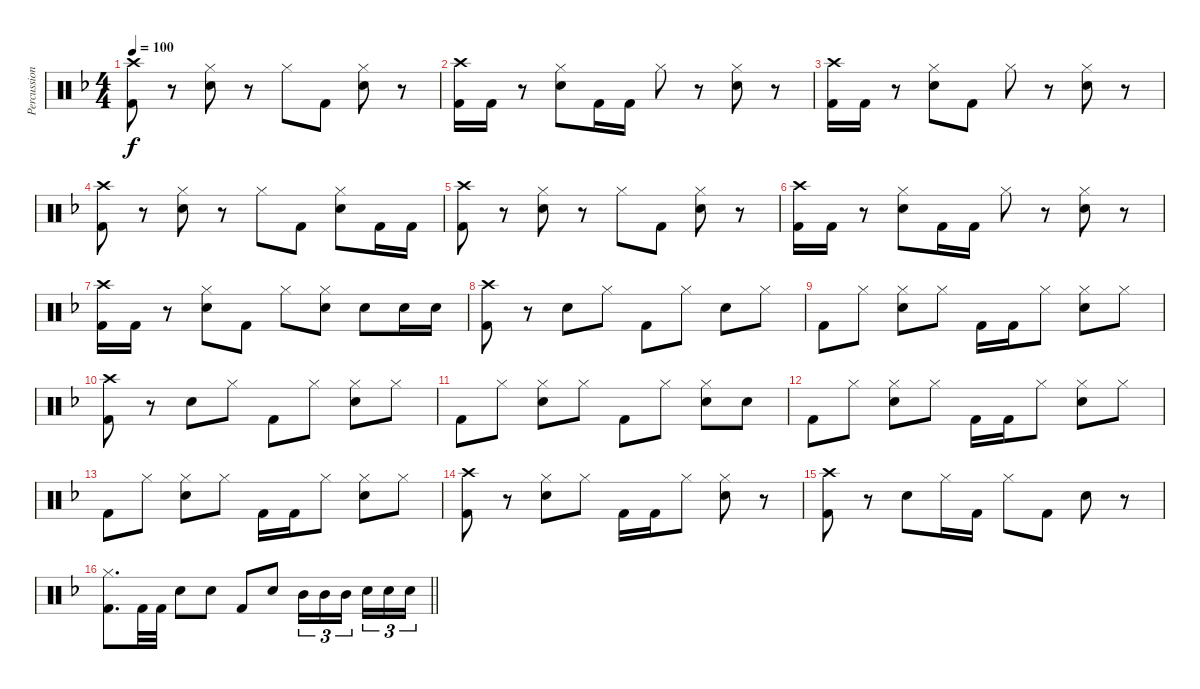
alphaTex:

\track ("Percussion" "Percussion") {instrument percussion}
\staff {score}
\articulation defaults
\ts (4 4)
\tempo 100
\clef neutral
\ks dminor
("Crash high (hit)" "Kick (hit) 2").8{dy f} r.8 ("Hi-Hat (closed)" "Snare (hit) 2").8 r.8 "Hi-Hat (closed)".8 "Kick (hit) 2".8 ("Hi-Hat (closed)" "Snare (hit) 2").8 r.8 |
("Crash high (hit)" "Kick (hit) 2").16 "Kick (hit) 2".16 r.8 ("Hi-Hat (closed)" "Snare (hit) 2").8 "Kick (hit) 2".16 "Kick (hit) 2".16 "Hi-Hat (closed)".8 r.8 ("Hi-Hat (closed)" "Snare (hit) 2").8 r.8 |
("Crash high (hit)" "Kick (hit) 2").16 "Kick (hit) 2".16 r.8 ("Hi-Hat (closed)" "Snare (hit) 2").8 "Kick (hit) 2".8 "Hi-Hat (closed)".8 r.8 ("Hi-Hat (closed)" "Snare (hit) 2").8 r.8 |
("Crash high (hit)" "Kick (hit) 2").8 r.8 ("Hi-Hat (closed)" "Snare (hit) 2").8 r.8 "Hi-Hat (closed)".8 "Kick (hit) 2".8 ("Hi-Hat (closed)" "Snare (hit) 2").8 "Kick (hit) 2".16 "Kick (hit) 2".16 |
("Crash high (hit)" "Kick (hit) 2").8 r.8 ("Hi-Hat (closed)" "Snare (hit) 2").8 r.8 "Hi-Hat (closed)".8 "Kick (hit) 2".8 ("Hi-Hat (closed)" "Snare (hit) 2").8 r.8 |
("Crash high (hit)" "Kick (hit) 2").16 "Kick (hit) 2".16 r.8 ("Hi-Hat (closed)" "Snare (hit) 2").8 "Kick (hit) 2".16 "Kick (hit) 2".16 "Hi-Hat (closed)".8 r.8 ("Hi-Hat (closed)" "Snare (hit) 2").8 r.8 |
("Crash high (hit)" "Kick (hit) 2").16 "Kick (hit) 2".16 r.8 ("Hi-Hat (closed)" "Snare (hit) 2").8 "Kick (hit) 2".8 "Hi-Hat (closed)".8 ("Hi-Hat (closed)" "Snare (hit) 2").8 "Snare (hit) 2".8 "Snare (hit) 2".16 "Snare (hit) 2".16 |
("Crash high (hit)" "Kick (hit) 2").8 r.8 "Snare (hit) 2".8 "Hi-Hat (closed)".8 "Kick (hit) 2".8 "Hi-Hat (closed)".8 "Snare (hit) 2".8 "Hi-Hat (closed)".8 |
"Kick (hit) 2".8 "Hi-Hat (closed)".8 ("Hi-Hat (closed)" "Snare (hit) 2").8 "Hi-Hat (closed)".8 "Kick (hit) 2".16 "Kick (hit) 2".16 "Hi-Hat (closed)".8 ("Hi-Hat (closed)" "Snare (hit) 2").8 "Hi-Hat (closed)".8 |
("Crash high (hit)" "Kick (hit) 2").8 r.8 "Snare (hit) 2".8 "Hi-Hat (closed)".8 "Kick (hit) 2".8 "Hi-Hat (closed)".8 ("Hi-Hat (closed)" "Snare (hit) 2").8 "Hi-Hat (closed)".8 |
"Kick (hit) 2".8 "Hi-Hat (closed)".8 ("Hi-Hat (closed)" "Snare (hit) 2").8 "Hi-Hat (closed)".8 "Kick (hit) 2".8 "Hi-Hat (closed)".8 ("Hi-Hat (closed)" "Snare (hit) 2").8 "Snare (hit) 2".8 |
"Kick (hit) 2".8 "Hi-Hat (closed)".8 ("Hi-Hat (closed)" "Snare (hit) 2").8 "Hi-Hat (closed)".8 "Kick (hit) 2".16 "Kick (hit) 2".16 "Hi-Hat (closed)".8 ("Hi-Hat (closed)" "Snare (hit) 2").8 "Hi-Hat (closed)".8 |
"Kick (hit) 2".8 "Hi-Hat (closed)".8 ("Hi-Hat (closed)" "Snare (hit) 2").8 "Hi-Hat (closed)".8 "Kick (hit) 2".16 "Kick (hit) 2".16 "Hi-Hat (closed)".8 ("Hi-Hat (closed)" "Snare (hit) 2").8 "Hi-Hat (closed)".8 |
("Crash high (hit)" "Kick (hit) 2").8 r.8 ("Hi-Hat (closed)" "Snare (hit) 2").8 "Hi-Hat (closed)".8 "Kick (hit) 2".16 "Kick (hit) 2".16 "Hi-Hat (closed)".8 ("Hi-Hat (closed)" "Snare (hit) 2").8 r.8 |
("Crash high (hit)" "Kick (hit) 2").8 r.8 "Snare (hit) 2".8 "Hi-Hat (closed)".16 "Kick (hit) 2".16 "Hi-Hat (closed)".8 "Kick (hit) 2".8 "Snare (hit) 2".8 r.8 |
\barLineRight lightlight
("Hi-Hat (closed)" "Kick (hit) 2").8{d} "Kick (hit) 2".32 "Kick (hit) 2".32 "Snare (hit) 2".8 "Snare (hit) 2".8 "Kick (hit) 2".8 "Snare (hit) 2".8 "Mid Tom (hit)".16{tu (3 2)} "Mid Tom (hit)".16{tu (3 2)} "Mid Tom (hit)".16{tu (3 2) beam splitsecondary} "Snare (hit) 2".16{tu (3 2)} "Snare (hit) 2".16{tu (3 2)} "Snare (hit) 2".16{tu (3 2)}
